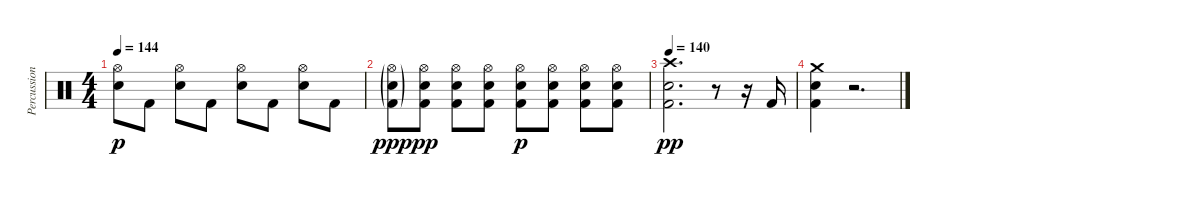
\track ("Percussion" "Percussion") {instrument percussion}
\staff {score}
\articulation defaults
\ts (4 4)
\tempo 144
\clef neutral
\ks c
("Hi-Hat (open)" "Snare (hit) 2").8{dy p} "Kick (hit) 2".8 ("Hi-Hat (open)" "Snare (hit) 2").8 "Kick (hit) 2".8 ("Hi-Hat (open)" "Snare (hit) 2").8 "Kick (hit) 2".8 ("Hi-Hat (open)" "Snare (hit) 2").8 "Kick (hit) 2".8 |
("Hi-Hat (open)"{g} "Snare (hit) 2"{g} "Kick (hit) 2"{g}).8{dy ppp} ("Hi-Hat (open)" "Snare (hit) 2" "Kick (hit) 2").8{dy pp} ("Hi-Hat (open)" "Snare (hit) 2" "Kick (hit) 2").8 ("Hi-Hat (open)" "Snare (hit) 2" "Kick (hit) 2").8 ("Hi-Hat (open)" "Snare (hit) 2" "Kick (hit) 2").8{dy p} ("Hi-Hat (open)" "Snare (hit) 2" "Kick (hit) 2").8 ("Hi-Hat (open)" "Snare (hit) 2" "Kick (hit) 2").8 ("Hi-Hat (open)" "Snare (hit) 2" "Kick (hit) 2").8 |
\tempo 140
("Crash high (hit)" "Snare (hit) 2" "Kick (hit) 2").2{d dy pp} r.8 r.16 "Kick (hit) 2".16 |
("Crash medium (hit)" "Snare (hit) 2" "Kick (hit) 2").4 r.2{d}
